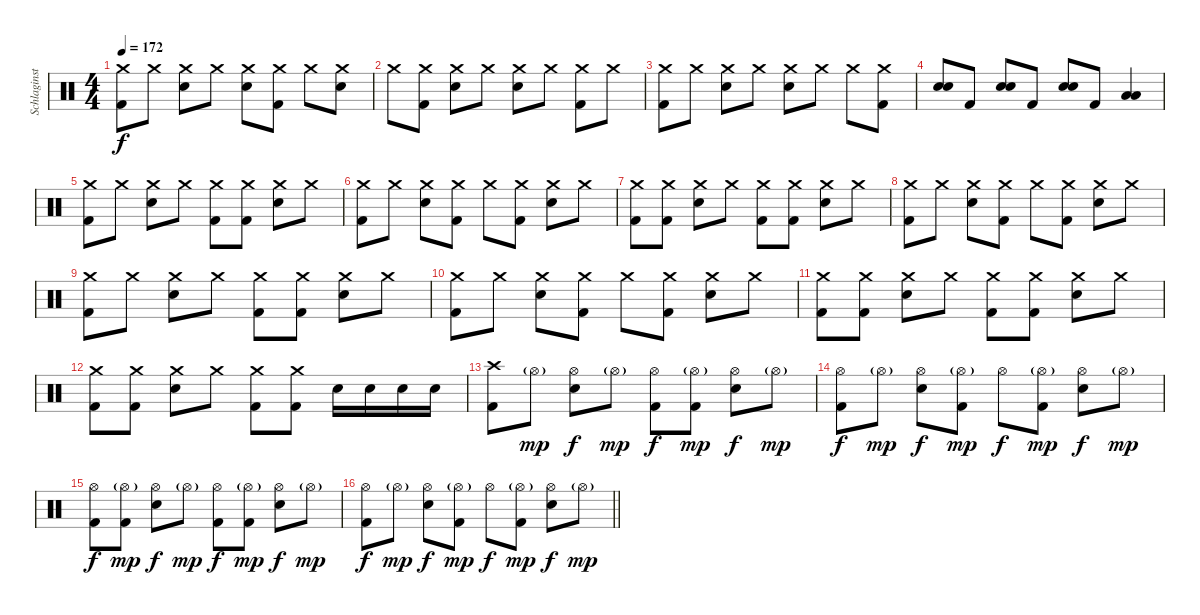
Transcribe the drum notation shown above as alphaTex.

\track ("Schlaginstrumente - Auswahl" "Schlaginst") {instrument percussion}
\staff {score}
\articulation defaults
\ts (4 4)
\tempo 172
\clef neutral
\ks c
("Crash medium (hit)" "Kick (hit) 2").8{dy f} "Crash medium (hit)".8 ("Crash medium (hit)" "Snare (hit) 2").8 "Crash medium (hit)".8 ("Crash medium (hit)" "Snare (hit) 2").8 ("Crash medium (hit)" "Kick (hit) 2").8 "Crash medium (hit)".8 ("Crash medium (hit)" "Snare (hit) 2").8 |
"Crash medium (hit)".8 ("Crash medium (hit)" "Kick (hit) 2").8 ("Crash medium (hit)" "Snare (hit) 2").8 "Crash medium (hit)".8 ("Crash medium (hit)" "Snare (hit) 2").8 "Crash medium (hit)".8 ("Crash medium (hit)" "Kick (hit) 2").8 "Crash medium (hit)".8 |
("Crash medium (hit)" "Kick (hit) 2").8 "Crash medium (hit)".8 ("Crash medium (hit)" "Snare (hit) 2").8 "Crash medium (hit)".8 ("Crash medium (hit)" "Snare (hit) 2").8 "Crash medium (hit)".8 "Crash medium (hit)".8 ("Crash medium (hit)" "Kick (hit) 2").8 |
("Snare (hit) 2" "Snare (hit) 2").8{bd 240} "Kick (hit) 2".8 ("Snare (hit) 2" "Snare (hit) 2").8{bd 240} "Kick (hit) 2".8 ("Snare (hit) 2" "Snare (hit) 2").8{bd 240} "Kick (hit) 2".8 ("Low Tom (hit)" "Low Floor Tom (hit)").4{bd 240} |
("Crash medium (hit)" "Kick (hit) 2").8 "Crash medium (hit)".8 ("Crash medium (hit)" "Snare (hit) 2").8 "Crash medium (hit)".8 ("Crash medium (hit)" "Kick (hit) 2").8 ("Crash medium (hit)" "Kick (hit) 2").8 ("Crash medium (hit)" "Snare (hit) 2").8 "Crash medium (hit)".8 |
("Crash medium (hit)" "Kick (hit) 2").8 "Crash medium (hit)".8 ("Crash medium (hit)" "Snare (hit) 2").8 ("Crash medium (hit)" "Kick (hit) 2").8 "Crash medium (hit)".8 ("Crash medium (hit)" "Kick (hit) 2").8 ("Crash medium (hit)" "Snare (hit) 2").8 "Crash medium (hit)".8 |
("Crash medium (hit)" "Kick (hit) 2").8 ("Crash medium (hit)" "Kick (hit) 2").8 ("Crash medium (hit)" "Snare (hit) 2").8 "Crash medium (hit)".8 ("Crash medium (hit)" "Kick (hit) 2").8 ("Crash medium (hit)" "Kick (hit) 2").8 ("Crash medium (hit)" "Snare (hit) 2").8 "Crash medium (hit)".8 |
("Crash medium (hit)" "Kick (hit) 2").8 "Crash medium (hit)".8 ("Crash medium (hit)" "Snare (hit) 2").8 ("Crash medium (hit)" "Kick (hit) 2").8 "Crash medium (hit)".8 ("Crash medium (hit)" "Kick (hit) 2").8 ("Crash medium (hit)" "Snare (hit) 2").8 "Crash medium (hit)".8 |
("Crash medium (hit)" "Kick (hit) 2").8 "Crash medium (hit)".8 ("Crash medium (hit)" "Snare (hit) 2").8 "Crash medium (hit)".8 ("Crash medium (hit)" "Kick (hit) 2").8 ("Crash medium (hit)" "Kick (hit) 2").8 ("Crash medium (hit)" "Snare (hit) 2").8 "Crash medium (hit)".8 |
("Crash medium (hit)" "Kick (hit) 2").8 "Crash medium (hit)".8 ("Crash medium (hit)" "Snare (hit) 2").8 ("Crash medium (hit)" "Kick (hit) 2").8 "Crash medium (hit)".8 ("Crash medium (hit)" "Kick (hit) 2").8 ("Crash medium (hit)" "Snare (hit) 2").8 "Crash medium (hit)".8 |
("Crash medium (hit)" "Kick (hit) 2").8 ("Crash medium (hit)" "Kick (hit) 2").8 ("Crash medium (hit)" "Snare (hit) 2").8 "Crash medium (hit)".8 ("Crash medium (hit)" "Kick (hit) 2").8 ("Crash medium (hit)" "Kick (hit) 2").8 ("Crash medium (hit)" "Snare (hit) 2").8 "Crash medium (hit)".8 |
("Crash medium (hit)" "Kick (hit) 2").8 ("Crash medium (hit)" "Kick (hit) 2").8 ("Crash medium (hit)" "Snare (hit) 2").8 "Crash medium (hit)".8 ("Crash medium (hit)" "Kick (hit) 2").8 ("Crash medium (hit)" "Kick (hit) 2").8 "Snare (hit) 2".16 "Snare (hit) 2".16 "Snare (hit) 2".16 "Snare (hit) 2".16 |
("Crash high (hit)" "Kick (hit) 2").8 "Hi-Hat (open)"{g}.8{dy mp} ("Hi-Hat (open)" "Snare (hit) 2").8{dy f} "Hi-Hat (open)"{g}.8{dy mp} ("Hi-Hat (open)" "Kick (hit) 2").8{dy f} ("Hi-Hat (open)"{g} "Kick (hit) 2").8{dy mp} ("Hi-Hat (open)" "Snare (hit) 2").8{dy f} "Hi-Hat (open)"{g}.8{dy mp} |
("Hi-Hat (open)" "Kick (hit) 2").8{dy f} "Hi-Hat (open)"{g}.8{dy mp} ("Hi-Hat (open)" "Snare (hit) 2").8{dy f} ("Hi-Hat (open)"{g} "Kick (hit) 2").8{dy mp} "Hi-Hat (open)".8{dy f} ("Hi-Hat (open)"{g} "Kick (hit) 2").8{dy mp} ("Hi-Hat (open)" "Snare (hit) 2").8{dy f} "Hi-Hat (open)"{g}.8{dy mp} |
("Hi-Hat (open)" "Kick (hit) 2").8{dy f} ("Hi-Hat (open)"{g} "Kick (hit) 2").8{dy mp} ("Hi-Hat (open)" "Snare (hit) 2").8{dy f} "Hi-Hat (open)"{g}.8{dy mp} ("Hi-Hat (open)" "Kick (hit) 2").8{dy f} ("Hi-Hat (open)"{g} "Kick (hit) 2").8{dy mp} ("Hi-Hat (open)" "Snare (hit) 2").8{dy f} "Hi-Hat (open)"{g}.8{dy mp} |
\barLineRight lightlight
("Hi-Hat (open)" "Kick (hit) 2").8{dy f} "Hi-Hat (open)"{g}.8{dy mp} ("Hi-Hat (open)" "Snare (hit) 2").8{dy f} ("Hi-Hat (open)"{g} "Kick (hit) 2").8{dy mp} "Hi-Hat (open)".8{dy f} ("Hi-Hat (open)"{g} "Kick (hit) 2").8{dy mp} ("Hi-Hat (open)" "Snare (hit) 2").8{dy f} "Hi-Hat (open)"{g}.8{dy mp}
